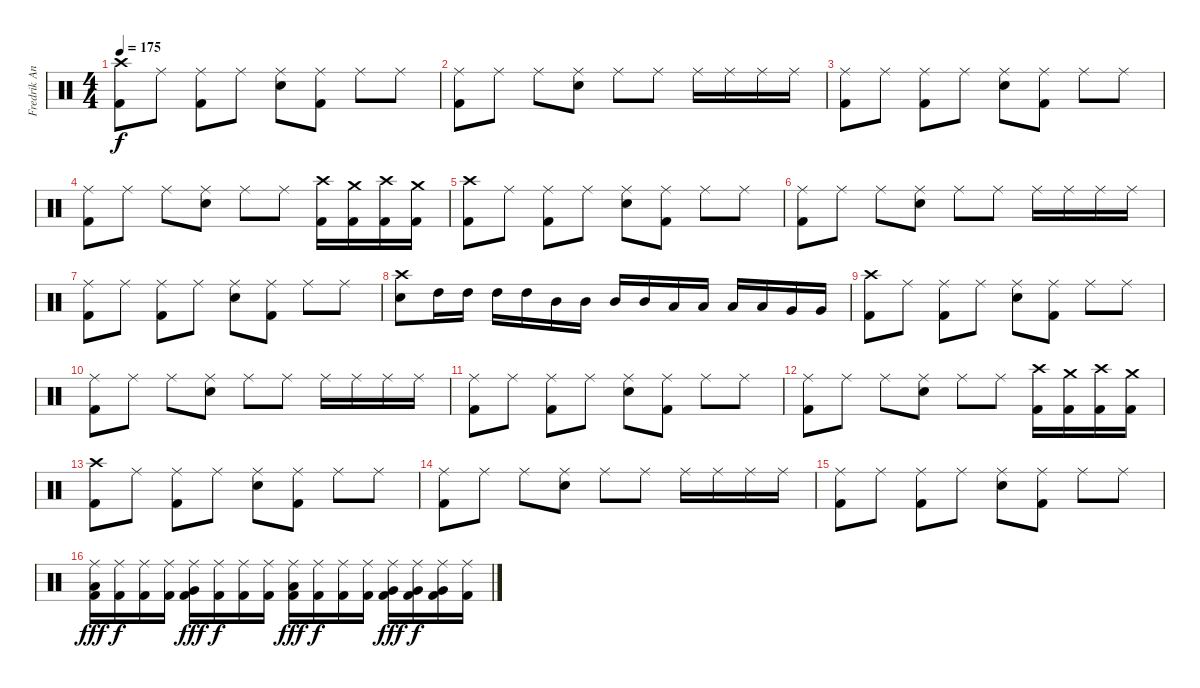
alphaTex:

\track ("Fredrik Andersson" "Fredrik An") {instrument percussion}
\staff {score}
\articulation defaults
\ts (4 4)
\tempo 175
\clef neutral
\ks c
("Crash high (hit)" "Kick (hit) 2").8{dy f} "Ride (middle)".8 ("Ride (middle)" "Kick (hit) 2").8 "Ride (middle)".8 ("Ride (middle)" "Electric Snare (hit)").8 ("Ride (middle)" "Kick (hit) 2").8 "Ride (middle)".8 "Ride (middle)".8 |
("Ride (middle)" "Kick (hit) 2").8 "Ride (middle)".8 "Ride (middle)".8 ("Ride (middle)" "Electric Snare (hit)").8 "Ride (middle)".8 "Ride (middle)".8 "Ride (middle)".16 "Ride (middle)".16 "Ride (middle)".16 "Ride (middle)".16 |
("Ride (middle)" "Kick (hit) 2").8 "Ride (middle)".8 ("Ride (middle)" "Kick (hit) 2").8 "Ride (middle)".8 ("Ride (middle)" "Electric Snare (hit)").8 ("Ride (middle)" "Kick (hit) 2").8 "Ride (middle)".8 "Ride (middle)".8 |
("Ride (middle)" "Kick (hit) 2").8 "Ride (middle)".8 "Ride (middle)".8 ("Ride (middle)" "Electric Snare (hit)").8 "Ride (middle)".8 "Ride (middle)".8 ("Crash high (hit)" "Kick (hit) 2").16 ("Crash medium (hit)" "Kick (hit) 2").16 ("Crash high (hit)" "Kick (hit) 2").16 ("Crash medium (hit)" "Kick (hit) 2").16 |
("Crash high (hit)" "Kick (hit) 2").8 "Ride (middle)".8 ("Ride (middle)" "Kick (hit) 2").8 "Ride (middle)".8 ("Ride (middle)" "Electric Snare (hit)").8 ("Ride (middle)" "Kick (hit) 2").8 "Ride (middle)".8 "Ride (middle)".8 |
("Ride (middle)" "Kick (hit) 2").8 "Ride (middle)".8 "Ride (middle)".8 ("Ride (middle)" "Electric Snare (hit)").8 "Ride (middle)".8 "Ride (middle)".8 "Ride (middle)".16 "Ride (middle)".16 "Ride (middle)".16 "Ride (middle)".16 |
("Ride (middle)" "Kick (hit) 2").8 "Ride (middle)".8 ("Ride (middle)" "Kick (hit) 2").8 "Ride (middle)".8 ("Ride (middle)" "Electric Snare (hit)").8 ("Ride (middle)" "Kick (hit) 2").8 "Ride (middle)".8 "Ride (middle)".8 |
("Crash high (hit)" "Electric Snare (hit)").8 "High Tom (hit)".16 "High Tom (hit)".16 "High Tom (hit)".16 "High Tom (hit)".16 "Mid Tom (hit)".16 "Mid Tom (hit)".16 "Mid Tom (hit)".16 "Mid Tom (hit)".16 "Low Tom (hit)".16 "Low Tom (hit)".16 "Low Tom (hit)".16 "Low Tom (hit)".16 "Very Low Tom (hit)".16 "Very Low Tom (hit)".16 |
("Crash high (hit)" "Kick (hit) 2").8 "Ride (middle)".8 ("Ride (middle)" "Kick (hit) 2").8 "Ride (middle)".8 ("Ride (middle)" "Electric Snare (hit)").8 ("Ride (middle)" "Kick (hit) 2").8 "Ride (middle)".8 "Ride (middle)".8 |
("Ride (middle)" "Kick (hit) 2").8 "Ride (middle)".8 "Ride (middle)".8 ("Ride (middle)" "Electric Snare (hit)").8 "Ride (middle)".8 "Ride (middle)".8 "Ride (middle)".16 "Ride (middle)".16 "Ride (middle)".16 "Ride (middle)".16 |
("Ride (middle)" "Kick (hit) 2").8 "Ride (middle)".8 ("Ride (middle)" "Kick (hit) 2").8 "Ride (middle)".8 ("Ride (middle)" "Electric Snare (hit)").8 ("Ride (middle)" "Kick (hit) 2").8 "Ride (middle)".8 "Ride (middle)".8 |
("Ride (middle)" "Kick (hit) 2").8 "Ride (middle)".8 "Ride (middle)".8 ("Ride (middle)" "Electric Snare (hit)").8 "Ride (middle)".8 "Ride (middle)".8 ("Crash high (hit)" "Kick (hit) 2").16 ("Crash medium (hit)" "Kick (hit) 2").16 ("Crash high (hit)" "Kick (hit) 2").16 ("Crash medium (hit)" "Kick (hit) 2").16 |
("Crash high (hit)" "Kick (hit) 2").8 "Ride (middle)".8 ("Ride (middle)" "Kick (hit) 2").8 "Ride (middle)".8 ("Ride (middle)" "Electric Snare (hit)").8 ("Ride (middle)" "Kick (hit) 2").8 "Ride (middle)".8 "Ride (middle)".8 |
("Ride (middle)" "Kick (hit) 2").8 "Ride (middle)".8 "Ride (middle)".8 ("Ride (middle)" "Electric Snare (hit)").8 "Ride (middle)".8 "Ride (middle)".8 "Ride (middle)".16 "Ride (middle)".16 "Ride (middle)".16 "Ride (middle)".16 |
("Ride (middle)" "Kick (hit) 2").8 "Ride (middle)".8 ("Ride (middle)" "Kick (hit) 2").8 "Ride (middle)".8 ("Ride (middle)" "Electric Snare (hit)").8 ("Ride (middle)" "Kick (hit) 2").8 "Ride (middle)".8 "Ride (middle)".8 |
("Ride (middle)" "Low Floor Tom (hit)" "Kick (hit) 2").16{dy fff} ("Ride (middle)" "Kick (hit) 2").16{dy f} ("Ride (middle)" "Kick (hit) 2").16 ("Ride (middle)" "Kick (hit) 2").16 ("Ride (middle)" "Very Low Tom (hit)" "Kick (hit) 2").16{dy fff} ("Ride (middle)" "Kick (hit) 2").16{dy f} ("Ride (middle)" "Kick (hit) 2").16 ("Ride (middle)" "Kick (hit) 2").16 ("Ride (middle)" "Low Floor Tom (hit)" "Kick (hit) 2").16{dy fff} ("Ride (middle)" "Kick (hit) 2").16{dy f} ("Ride (middle)" "Kick (hit) 2").16 ("Ride (middle)" "Kick (hit) 2").16 ("Ride (middle)" "Very Low Tom (hit)" "Kick (hit) 2").16{dy fff} ("Ride (middle)" "Very Low Tom (hit)" "Kick (hit) 2").16{dy f} ("Ride (middle)" "Very Low Tom (hit)" "Kick (hit) 2").16 ("Ride (middle)" "Kick (hit) 2").16
